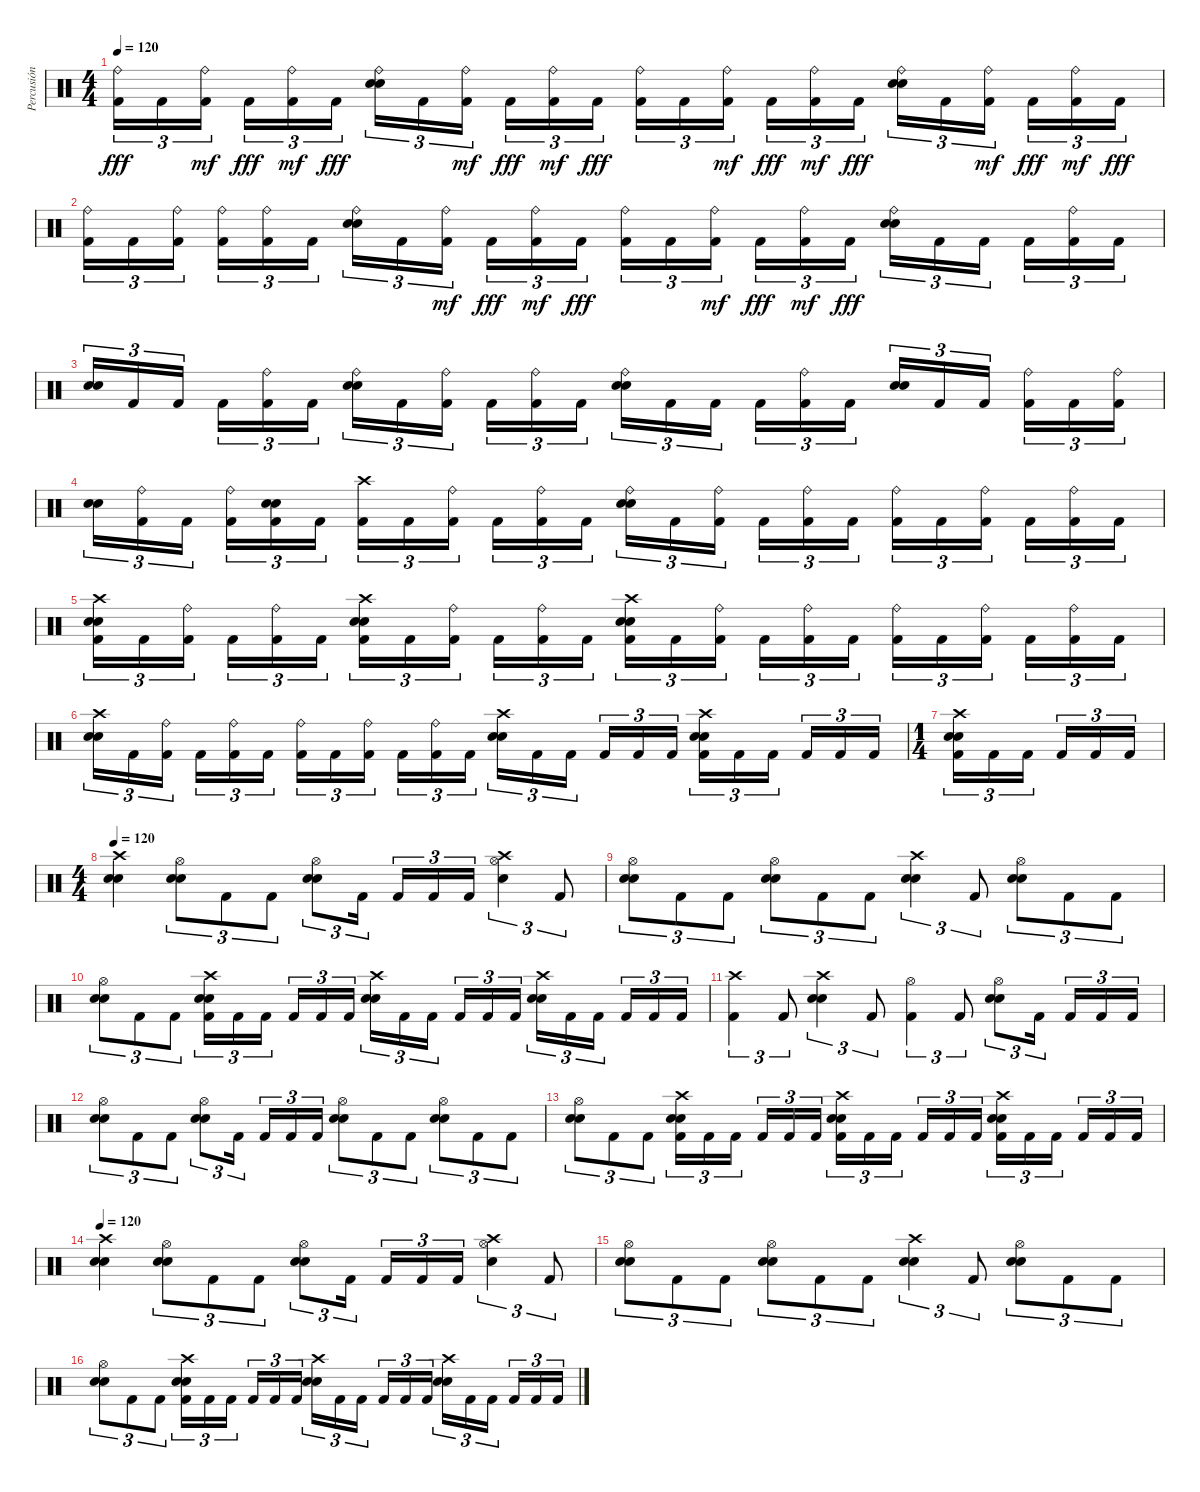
\track ("Percusión" "Percusión") {instrument percussion}
\staff {score}
\articulation defaults
\ts (4 4)
\tempo 120
\clef neutral
\ks c
("Kick (hit) 2" "Ride (bell)").16{tu (3 2) dy fff} "Kick (hit) 2".16{tu (3 2)} ("Kick (hit) 2" "Ride (bell)").16{tu (3 2) dy mf beam splitsecondary} "Kick (hit) 2".16{tu (3 2) dy fff} ("Kick (hit) 2" "Ride (bell)").16{tu (3 2) dy mf} "Kick (hit) 2".16{tu (3 2) dy fff} ("Snare (hit) 2" "Electric Snare (hit)" "Ride (bell)").16{tu (3 2)} "Kick (hit) 2".16{tu (3 2)} ("Kick (hit) 2" "Ride (bell)").16{tu (3 2) dy mf beam splitsecondary} "Kick (hit) 2".16{tu (3 2) dy fff} ("Kick (hit) 2" "Ride (bell)").16{tu (3 2) dy mf} "Kick (hit) 2".16{tu (3 2) dy fff} ("Kick (hit) 2" "Ride (bell)").16{tu (3 2)} "Kick (hit) 2".16{tu (3 2)} ("Kick (hit) 2" "Ride (bell)").16{tu (3 2) dy mf beam splitsecondary} "Kick (hit) 2".16{tu (3 2) dy fff} ("Kick (hit) 2" "Ride (bell)").16{tu (3 2) dy mf} "Kick (hit) 2".16{tu (3 2) dy fff} ("Snare (hit) 2" "Electric Snare (hit)" "Ride (bell)").16{tu (3 2)} "Kick (hit) 2".16{tu (3 2)} ("Kick (hit) 2" "Ride (bell)").16{tu (3 2) dy mf beam splitsecondary} "Kick (hit) 2".16{tu (3 2) dy fff} ("Kick (hit) 2" "Ride (bell)").16{tu (3 2) dy mf} "Kick (hit) 2".16{tu (3 2) dy fff} |
("Kick (hit) 2" "Ride (bell)").16{tu (3 2)} "Kick (hit) 2".16{tu (3 2)} ("Kick (hit) 2" "Ride (bell)").16{tu (3 2) beam splitsecondary} ("Kick (hit) 2" "Ride (bell)").16{tu (3 2)} ("Kick (hit) 2" "Ride (bell)").16{tu (3 2)} "Kick (hit) 2".16{tu (3 2)} ("Snare (hit) 2" "Electric Snare (hit)" "Ride (bell)").16{tu (3 2)} "Kick (hit) 2".16{tu (3 2)} ("Kick (hit) 2" "Ride (bell)").16{tu (3 2) dy mf beam splitsecondary} "Kick (hit) 2".16{tu (3 2) dy fff} ("Kick (hit) 2" "Ride (bell)").16{tu (3 2) dy mf} "Kick (hit) 2".16{tu (3 2) dy fff} ("Kick (hit) 2" "Ride (bell)").16{tu (3 2)} "Kick (hit) 2".16{tu (3 2)} ("Kick (hit) 2" "Ride (bell)").16{tu (3 2) dy mf beam splitsecondary} "Kick (hit) 2".16{tu (3 2) dy fff} ("Kick (hit) 2" "Ride (bell)").16{tu (3 2) dy mf} "Kick (hit) 2".16{tu (3 2) dy fff} ("Snare (hit) 2" "Electric Snare (hit)" "Ride (bell)").16{tu (3 2)} "Kick (hit) 2".16{tu (3 2)} "Kick (hit) 2".16{tu (3 2) beam splitsecondary} "Kick (hit) 2".16{tu (3 2)} ("Kick (hit) 2" "Ride (bell)").16{tu (3 2)} "Kick (hit) 2".16{tu (3 2)} |
("Snare (hit) 2" "Electric Snare (hit)").16{tu (3 2)} "Kick (hit) 2".16{tu (3 2)} "Kick (hit) 2".16{tu (3 2) beam splitsecondary} "Kick (hit) 2".16{tu (3 2)} ("Kick (hit) 2" "Ride (bell)").16{tu (3 2)} "Kick (hit) 2".16{tu (3 2)} ("Snare (hit) 2" "Electric Snare (hit)" "Ride (bell)").16{tu (3 2)} "Kick (hit) 2".16{tu (3 2)} ("Kick (hit) 2" "Ride (bell)").16{tu (3 2) beam splitsecondary} "Kick (hit) 2".16{tu (3 2)} ("Kick (hit) 2" "Ride (bell)").16{tu (3 2)} "Kick (hit) 2".16{tu (3 2)} ("Snare (hit) 2" "Electric Snare (hit)" "Ride (bell)").16{tu (3 2)} "Kick (hit) 2".16{tu (3 2)} "Kick (hit) 2".16{tu (3 2) beam splitsecondary} "Kick (hit) 2".16{tu (3 2)} ("Kick (hit) 2" "Ride (bell)").16{tu (3 2)} "Kick (hit) 2".16{tu (3 2)} ("Snare (hit) 2" "Electric Snare (hit)").16{tu (3 2)} "Kick (hit) 2".16{tu (3 2)} "Kick (hit) 2".16{tu (3 2) beam splitsecondary} ("Kick (hit) 2" "Ride (bell)").16{tu (3 2)} "Kick (hit) 2".16{tu (3 2)} ("Kick (hit) 2" "Ride (bell)").16{tu (3 2)} |
("Snare (hit) 2" "Electric Snare (hit)").16{tu (3 2)} ("Kick (hit) 2" "Ride (bell)").16{tu (3 2)} "Kick (hit) 2".16{tu (3 2) beam splitsecondary} ("Kick (hit) 2" "Ride (bell)").16{tu (3 2)} ("Kick (hit) 2" "Snare (hit) 2" "Electric Snare (hit)").16{tu (3 2)} "Kick (hit) 2".16{tu (3 2)} ("Kick (hit) 2" "Crash high (hit)").16{tu (3 2)} "Kick (hit) 2".16{tu (3 2)} ("Kick (hit) 2" "Ride (bell)").16{tu (3 2) beam splitsecondary} "Kick (hit) 2".16{tu (3 2)} ("Kick (hit) 2" "Ride (bell)").16{tu (3 2)} "Kick (hit) 2".16{tu (3 2)} ("Snare (hit) 2" "Electric Snare (hit)" "Ride (bell)").16{tu (3 2)} "Kick (hit) 2".16{tu (3 2)} ("Kick (hit) 2" "Ride (bell)").16{tu (3 2) beam splitsecondary} "Kick (hit) 2".16{tu (3 2)} ("Kick (hit) 2" "Ride (bell)").16{tu (3 2)} "Kick (hit) 2".16{tu (3 2)} ("Kick (hit) 2" "Ride (bell)").16{tu (3 2)} "Kick (hit) 2".16{tu (3 2)} ("Kick (hit) 2" "Ride (bell)").16{tu (3 2) beam splitsecondary} "Kick (hit) 2".16{tu (3 2)} ("Kick (hit) 2" "Ride (bell)").16{tu (3 2)} "Kick (hit) 2".16{tu (3 2)} |
("Kick (hit) 2" "Snare (hit) 2" "Electric Snare (hit)" "Crash high (hit)").16{tu (3 2)} "Kick (hit) 2".16{tu (3 2)} ("Kick (hit) 2" "Ride (bell)").16{tu (3 2) beam splitsecondary} "Kick (hit) 2".16{tu (3 2)} ("Kick (hit) 2" "Ride (bell)").16{tu (3 2)} "Kick (hit) 2".16{tu (3 2)} ("Kick (hit) 2" "Snare (hit) 2" "Electric Snare (hit)" "Crash high (hit)").16{tu (3 2)} "Kick (hit) 2".16{tu (3 2)} ("Kick (hit) 2" "Ride (bell)").16{tu (3 2) beam splitsecondary} "Kick (hit) 2".16{tu (3 2)} ("Kick (hit) 2" "Ride (bell)").16{tu (3 2)} "Kick (hit) 2".16{tu (3 2)} ("Snare (hit) 2" "Electric Snare (hit)" "Crash high (hit)" "Kick (hit) 2").16{tu (3 2)} "Kick (hit) 2".16{tu (3 2)} ("Kick (hit) 2" "Ride (bell)").16{tu (3 2) beam splitsecondary} "Kick (hit) 2".16{tu (3 2)} ("Kick (hit) 2" "Ride (bell)").16{tu (3 2)} "Kick (hit) 2".16{tu (3 2)} ("Kick (hit) 2" "Ride (bell)").16{tu (3 2)} "Kick (hit) 2".16{tu (3 2)} ("Kick (hit) 2" "Ride (bell)").16{tu (3 2) beam splitsecondary} "Kick (hit) 2".16{tu (3 2)} ("Kick (hit) 2" "Ride (bell)").16{tu (3 2)} "Kick (hit) 2".16{tu (3 2)} |
("Snare (hit) 2" "Electric Snare (hit)" "Crash high (hit)").16{tu (3 2)} "Kick (hit) 2".16{tu (3 2)} ("Kick (hit) 2" "Ride (bell)").16{tu (3 2) beam splitsecondary} "Kick (hit) 2".16{tu (3 2)} ("Kick (hit) 2" "Ride (bell)").16{tu (3 2)} "Kick (hit) 2".16{tu (3 2)} ("Kick (hit) 2" "Ride (bell)").16{tu (3 2)} "Kick (hit) 2".16{tu (3 2)} ("Kick (hit) 2" "Ride (bell)").16{tu (3 2) beam splitsecondary} "Kick (hit) 2".16{tu (3 2)} ("Kick (hit) 2" "Ride (bell)").16{tu (3 2)} "Kick (hit) 2".16{tu (3 2)} ("Snare (hit) 2" "Electric Snare (hit)" "Crash high (hit)").16{tu (3 2)} "Kick (hit) 2".16{tu (3 2)} "Kick (hit) 2".16{tu (3 2) beam splitsecondary} "Kick (hit) 2".16{tu (3 2)} "Kick (hit) 2".16{tu (3 2)} "Kick (hit) 2".16{tu (3 2)} ("Kick (hit) 2" "Snare (hit) 2" "Electric Snare (hit)" "Crash high (hit)").16{tu (3 2)} "Kick (hit) 2".16{tu (3 2)} "Kick (hit) 2".16{tu (3 2) beam splitsecondary} "Kick (hit) 2".16{tu (3 2)} "Kick (hit) 2".16{tu (3 2)} "Kick (hit) 2".16{tu (3 2)} |
\ts (1 4)
("Snare (hit) 2" "Electric Snare (hit)" "Kick (hit) 2" "Crash high (hit)").16{tu (3 2)} "Kick (hit) 2".16{tu (3 2)} "Kick (hit) 2".16{tu (3 2) beam splitsecondary} "Kick (hit) 2".16{tu (3 2)} "Kick (hit) 2".16{tu (3 2)} "Kick (hit) 2".16{tu (3 2)} |
\ts (4 4)
\tempo 120
("Snare (hit) 2" "Electric Snare (hit)" "Crash high (hit)").4 ("Snare (hit) 2" "Electric Snare (hit)" "Hi-Hat (open)").8{tu (3 2)} "Kick (hit) 2".8{tu (3 2)} "Kick (hit) 2".8{tu (3 2)} ("Snare (hit) 2" "Electric Snare (hit)" "Hi-Hat (open)").8{tu (3 2)} "Kick (hit) 2".16{tu (3 2) beam splitsecondary} "Kick (hit) 2".16{tu (3 2)} "Kick (hit) 2".16{tu (3 2)} "Kick (hit) 2".16{tu (3 2)} ("Snare (hit) 2" "Crash high (hit)" "Hi-Hat (open)").4{tu (3 2)} "Kick (hit) 2".8{tu (3 2)} |
("Snare (hit) 2" "Electric Snare (hit)" "Hi-Hat (open)").8{tu (3 2)} "Kick (hit) 2".8{tu (3 2)} "Kick (hit) 2".8{tu (3 2)} ("Snare (hit) 2" "Electric Snare (hit)" "Hi-Hat (open)").8{tu (3 2)} "Kick (hit) 2".8{tu (3 2)} "Kick (hit) 2".8{tu (3 2)} ("Snare (hit) 2" "Electric Snare (hit)" "Crash high (hit)").4{tu (3 2)} "Kick (hit) 2".8{tu (3 2)} ("Snare (hit) 2" "Electric Snare (hit)" "Hi-Hat (open)").8{tu (3 2)} "Kick (hit) 2".8{tu (3 2)} "Kick (hit) 2".8{tu (3 2)} |
("Snare (hit) 2" "Electric Snare (hit)" "Hi-Hat (open)").8{tu (3 2)} "Kick (hit) 2".8{tu (3 2)} "Kick (hit) 2".8{tu (3 2)} ("Kick (hit) 2" "Crash high (hit)" "Snare (hit) 2" "Electric Snare (hit)").16{tu (3 2)} "Kick (hit) 2".16{tu (3 2)} "Kick (hit) 2".16{tu (3 2) beam splitsecondary} "Kick (hit) 2".16{tu (3 2)} "Kick (hit) 2".16{tu (3 2)} "Kick (hit) 2".16{tu (3 2)} ("Snare (hit) 2" "Electric Snare (hit)" "Crash high (hit)").16{tu (3 2)} "Kick (hit) 2".16{tu (3 2)} "Kick (hit) 2".16{tu (3 2) beam splitsecondary} "Kick (hit) 2".16{tu (3 2)} "Kick (hit) 2".16{tu (3 2)} "Kick (hit) 2".16{tu (3 2)} ("Snare (hit) 2" "Electric Snare (hit)" "Crash high (hit)").16{tu (3 2)} "Kick (hit) 2".16{tu (3 2)} "Kick (hit) 2".16{tu (3 2) beam splitsecondary} "Kick (hit) 2".16{tu (3 2)} "Kick (hit) 2".16{tu (3 2)} "Kick (hit) 2".16{tu (3 2)} |
("Kick (hit) 2" "Crash high (hit)").4{tu (3 2)} "Kick (hit) 2".8{tu (3 2)} ("Snare (hit) 2" "Electric Snare (hit)" "Crash high (hit)").4{tu (3 2)} "Kick (hit) 2".8{tu (3 2)} ("Kick (hit) 2" "Hi-Hat (open)").4{tu (3 2)} "Kick (hit) 2".8{tu (3 2)} ("Snare (hit) 2" "Electric Snare (hit)" "Hi-Hat (open)").8{tu (3 2)} "Kick (hit) 2".16{tu (3 2) beam splitsecondary} "Kick (hit) 2".16{tu (3 2)} "Kick (hit) 2".16{tu (3 2)} "Kick (hit) 2".16{tu (3 2)} |
("Snare (hit) 2" "Electric Snare (hit)" "Hi-Hat (open)").8{tu (3 2)} "Kick (hit) 2".8{tu (3 2)} "Kick (hit) 2".8{tu (3 2)} ("Snare (hit) 2" "Electric Snare (hit)" "Hi-Hat (open)").8{tu (3 2)} "Kick (hit) 2".16{tu (3 2) beam splitsecondary} "Kick (hit) 2".16{tu (3 2)} "Kick (hit) 2".16{tu (3 2)} "Kick (hit) 2".16{tu (3 2)} ("Snare (hit) 2" "Electric Snare (hit)" "Hi-Hat (open)").8{tu (3 2)} "Kick (hit) 2".8{tu (3 2)} "Kick (hit) 2".8{tu (3 2)} ("Snare (hit) 2" "Electric Snare (hit)" "Hi-Hat (open)").8{tu (3 2)} "Kick (hit) 2".8{tu (3 2)} "Kick (hit) 2".8{tu (3 2)} |
("Snare (hit) 2" "Electric Snare (hit)" "Hi-Hat (open)").8{tu (3 2)} "Kick (hit) 2".8{tu (3 2)} "Kick (hit) 2".8{tu (3 2)} ("Snare (hit) 2" "Kick (hit) 2" "Crash high (hit)" "Electric Snare (hit)").16{tu (3 2)} "Kick (hit) 2".16{tu (3 2)} "Kick (hit) 2".16{tu (3 2) beam splitsecondary} "Kick (hit) 2".16{tu (3 2)} "Kick (hit) 2".16{tu (3 2)} "Kick (hit) 2".16{tu (3 2)} ("Kick (hit) 2" "Snare (hit) 2" "Electric Snare (hit)" "Crash high (hit)").16{tu (3 2)} "Kick (hit) 2".16{tu (3 2)} "Kick (hit) 2".16{tu (3 2) beam splitsecondary} "Kick (hit) 2".16{tu (3 2)} "Kick (hit) 2".16{tu (3 2)} "Kick (hit) 2".16{tu (3 2)} ("Kick (hit) 2" "Snare (hit) 2" "Electric Snare (hit)" "Crash high (hit)").16{tu (3 2)} "Kick (hit) 2".16{tu (3 2)} "Kick (hit) 2".16{tu (3 2) beam splitsecondary} "Kick (hit) 2".16{tu (3 2)} "Kick (hit) 2".16{tu (3 2)} "Kick (hit) 2".16{tu (3 2)} |
\tempo 120
("Snare (hit) 2" "Electric Snare (hit)" "Crash high (hit)").4 ("Snare (hit) 2" "Electric Snare (hit)" "Hi-Hat (open)").8{tu (3 2)} "Kick (hit) 2".8{tu (3 2)} "Kick (hit) 2".8{tu (3 2)} ("Snare (hit) 2" "Electric Snare (hit)" "Hi-Hat (open)").8{tu (3 2)} "Kick (hit) 2".16{tu (3 2) beam splitsecondary} "Kick (hit) 2".16{tu (3 2)} "Kick (hit) 2".16{tu (3 2)} "Kick (hit) 2".16{tu (3 2)} ("Snare (hit) 2" "Crash high (hit)" "Hi-Hat (open)").4{tu (3 2)} "Kick (hit) 2".8{tu (3 2)} |
("Snare (hit) 2" "Electric Snare (hit)" "Hi-Hat (open)").8{tu (3 2)} "Kick (hit) 2".8{tu (3 2)} "Kick (hit) 2".8{tu (3 2)} ("Snare (hit) 2" "Electric Snare (hit)" "Hi-Hat (open)").8{tu (3 2)} "Kick (hit) 2".8{tu (3 2)} "Kick (hit) 2".8{tu (3 2)} ("Snare (hit) 2" "Electric Snare (hit)" "Crash high (hit)").4{tu (3 2)} "Kick (hit) 2".8{tu (3 2)} ("Snare (hit) 2" "Electric Snare (hit)" "Hi-Hat (open)").8{tu (3 2)} "Kick (hit) 2".8{tu (3 2)} "Kick (hit) 2".8{tu (3 2)} |
("Snare (hit) 2" "Electric Snare (hit)" "Hi-Hat (open)").8{tu (3 2)} "Kick (hit) 2".8{tu (3 2)} "Kick (hit) 2".8{tu (3 2)} ("Kick (hit) 2" "Crash high (hit)" "Snare (hit) 2" "Electric Snare (hit)").16{tu (3 2)} "Kick (hit) 2".16{tu (3 2)} "Kick (hit) 2".16{tu (3 2) beam splitsecondary} "Kick (hit) 2".16{tu (3 2)} "Kick (hit) 2".16{tu (3 2)} "Kick (hit) 2".16{tu (3 2)} ("Snare (hit) 2" "Electric Snare (hit)" "Crash high (hit)").16{tu (3 2)} "Kick (hit) 2".16{tu (3 2)} "Kick (hit) 2".16{tu (3 2) beam splitsecondary} "Kick (hit) 2".16{tu (3 2)} "Kick (hit) 2".16{tu (3 2)} "Kick (hit) 2".16{tu (3 2)} ("Snare (hit) 2" "Electric Snare (hit)" "Crash high (hit)").16{tu (3 2)} "Kick (hit) 2".16{tu (3 2)} "Kick (hit) 2".16{tu (3 2) beam splitsecondary} "Kick (hit) 2".16{tu (3 2)} "Kick (hit) 2".16{tu (3 2)} "Kick (hit) 2".16{tu (3 2)}
